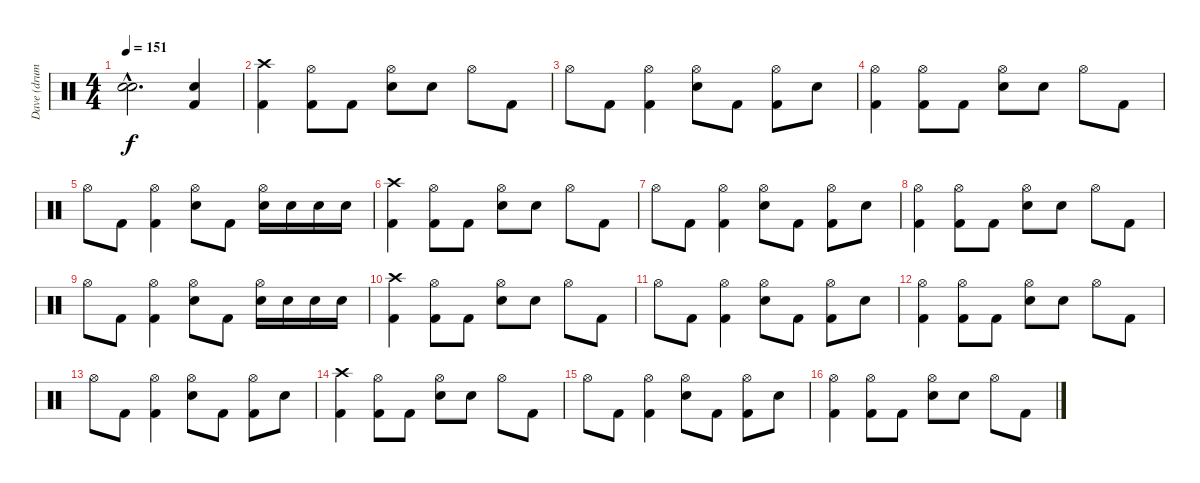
\track ("Dave (drums)" "Dave (drum") {instrument percussion}
\staff {score}
\articulation defaults
\ts (4 4)
\tempo 151
\clef neutral
\ks c
("Snare (hit)"{hac t} "Snare (hit)"{hac t}).2{d dy f} ("Electric Snare (hit)" "Kick (hit) 2").4 |
("Crash high (hit)" "Kick (hit) 2").4 ("Hi-Hat (open)" "Kick (hit) 2").8 "Kick (hit) 2".8 ("Hi-Hat (open)" "Electric Snare (hit)").8 "Electric Snare (hit)".8 "Hi-Hat (open)".8 "Kick (hit) 2".8 |
"Hi-Hat (open)".8 "Kick (hit) 2".8 ("Hi-Hat (open)" "Kick (hit) 2").4 ("Hi-Hat (open)" "Electric Snare (hit)").8 "Kick (hit) 2".8 ("Hi-Hat (open)" "Kick (hit) 2").8 "Electric Snare (hit)".8 |
("Hi-Hat (open)" "Kick (hit) 2").4 ("Hi-Hat (open)" "Kick (hit) 2").8 "Kick (hit) 2".8 ("Hi-Hat (open)" "Electric Snare (hit)").8 "Electric Snare (hit)".8 "Hi-Hat (open)".8 "Kick (hit) 2".8 |
"Hi-Hat (open)".8 "Kick (hit) 2".8 ("Hi-Hat (open)" "Kick (hit) 2").4 ("Hi-Hat (open)" "Electric Snare (hit)").8 "Kick (hit) 2".8 ("Hi-Hat (open)" "Electric Snare (hit)").16 "Electric Snare (hit)".16 "Electric Snare (hit)".16 "Electric Snare (hit)".16 |
("Crash high (hit)" "Kick (hit) 2").4 ("Hi-Hat (open)" "Kick (hit) 2").8 "Kick (hit) 2".8 ("Hi-Hat (open)" "Electric Snare (hit)").8 "Electric Snare (hit)".8 "Hi-Hat (open)".8 "Kick (hit) 2".8 |
"Hi-Hat (open)".8 "Kick (hit) 2".8 ("Hi-Hat (open)" "Kick (hit) 2").4 ("Hi-Hat (open)" "Electric Snare (hit)").8 "Kick (hit) 2".8 ("Hi-Hat (open)" "Kick (hit) 2").8 "Electric Snare (hit)".8 |
("Hi-Hat (open)" "Kick (hit) 2").4 ("Hi-Hat (open)" "Kick (hit) 2").8 "Kick (hit) 2".8 ("Hi-Hat (open)" "Electric Snare (hit)").8 "Electric Snare (hit)".8 "Hi-Hat (open)".8 "Kick (hit) 2".8 |
"Hi-Hat (open)".8 "Kick (hit) 2".8 ("Hi-Hat (open)" "Kick (hit) 2").4 ("Hi-Hat (open)" "Electric Snare (hit)").8 "Kick (hit) 2".8 ("Hi-Hat (open)" "Electric Snare (hit)").16 "Electric Snare (hit)".16 "Electric Snare (hit)".16 "Electric Snare (hit)".16 |
("Crash high (hit)" "Kick (hit) 2").4 ("Hi-Hat (open)" "Kick (hit) 2").8 "Kick (hit) 2".8 ("Hi-Hat (open)" "Electric Snare (hit)").8 "Electric Snare (hit)".8 "Hi-Hat (open)".8 "Kick (hit) 2".8 |
"Hi-Hat (open)".8 "Kick (hit) 2".8 ("Hi-Hat (open)" "Kick (hit) 2").4 ("Hi-Hat (open)" "Electric Snare (hit)").8 "Kick (hit) 2".8 ("Hi-Hat (open)" "Kick (hit) 2").8 "Electric Snare (hit)".8 |
("Hi-Hat (open)" "Kick (hit) 2").4 ("Hi-Hat (open)" "Kick (hit) 2").8 "Kick (hit) 2".8 ("Hi-Hat (open)" "Electric Snare (hit)").8 "Electric Snare (hit)".8 "Hi-Hat (open)".8 "Kick (hit) 2".8 |
"Hi-Hat (open)".8 "Kick (hit) 2".8 ("Hi-Hat (open)" "Kick (hit) 2").4 ("Hi-Hat (open)" "Electric Snare (hit)").8 "Kick (hit) 2".8 ("Hi-Hat (open)" "Kick (hit) 2").8 "Electric Snare (hit)".8 |
("Crash high (hit)" "Kick (hit) 2").4 ("Hi-Hat (open)" "Kick (hit) 2").8 "Kick (hit) 2".8 ("Hi-Hat (open)" "Electric Snare (hit)").8 "Electric Snare (hit)".8 "Hi-Hat (open)".8 "Kick (hit) 2".8 |
"Hi-Hat (open)".8 "Kick (hit) 2".8 ("Hi-Hat (open)" "Kick (hit) 2").4 ("Hi-Hat (open)" "Electric Snare (hit)").8 "Kick (hit) 2".8 ("Hi-Hat (open)" "Kick (hit) 2").8 "Electric Snare (hit)".8 |
("Hi-Hat (open)" "Kick (hit) 2").4 ("Hi-Hat (open)" "Kick (hit) 2").8 "Kick (hit) 2".8 ("Hi-Hat (open)" "Electric Snare (hit)").8 "Electric Snare (hit)".8 "Hi-Hat (open)".8 "Kick (hit) 2".8
